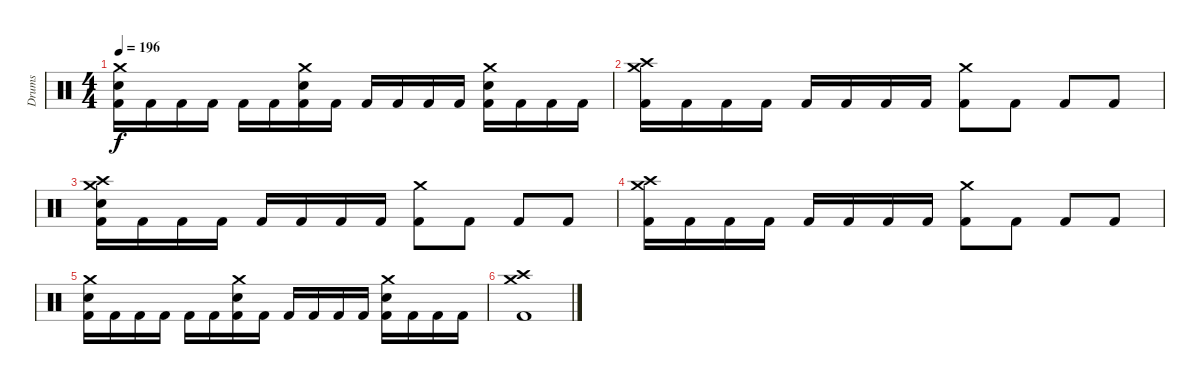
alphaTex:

\track ("Drums" "Drums") {instrument percussion}
\staff {score}
\articulation defaults
\ts (4 4)
\tempo 196
\clef neutral
\ks c
("Crash medium (hit)" "Snare (hit) 2" "Kick (hit) 2").16{dy f} "Kick (hit) 2".16 "Kick (hit) 2".16 "Kick (hit) 2".16 "Kick (hit) 2".16 "Kick (hit) 2".16 ("Crash medium (hit)" "Snare (hit) 2" "Kick (hit) 2").16 "Kick (hit) 2".16 "Kick (hit) 2".16 "Kick (hit) 2".16 "Kick (hit) 2".16 "Kick (hit) 2".16 ("Crash medium (hit)" "Snare (hit) 2" "Kick (hit) 2").16 "Kick (hit) 2".16 "Kick (hit) 2".16 "Kick (hit) 2".16 |
("Crash high (hit)" "Crash medium (hit)" "Kick (hit) 2").16 "Kick (hit) 2".16 "Kick (hit) 2".16 "Kick (hit) 2".16 "Kick (hit) 2".16 "Kick (hit) 2".16 "Kick (hit) 2".16 "Kick (hit) 2".16 ("Crash medium (hit)" "Kick (hit) 2").8 "Kick (hit) 2".8 "Kick (hit) 2".8 "Kick (hit) 2".8 |
("Crash high (hit)" "Crash medium (hit)" "Snare (hit) 2" "Kick (hit) 2").16 "Kick (hit) 2".16 "Kick (hit) 2".16 "Kick (hit) 2".16 "Kick (hit) 2".16 "Kick (hit) 2".16 "Kick (hit) 2".16 "Kick (hit) 2".16 ("Crash medium (hit)" "Kick (hit) 2").8 "Kick (hit) 2".8 "Kick (hit) 2".8 "Kick (hit) 2".8 |
("Crash high (hit)" "Crash medium (hit)" "Kick (hit) 2").16 "Kick (hit) 2".16 "Kick (hit) 2".16 "Kick (hit) 2".16 "Kick (hit) 2".16 "Kick (hit) 2".16 "Kick (hit) 2".16 "Kick (hit) 2".16 ("Crash medium (hit)" "Kick (hit) 2").8 "Kick (hit) 2".8 "Kick (hit) 2".8 "Kick (hit) 2".8 |
("Crash medium (hit)" "Snare (hit) 2" "Kick (hit) 2").16 "Kick (hit) 2".16 "Kick (hit) 2".16 "Kick (hit) 2".16 "Kick (hit) 2".16 "Kick (hit) 2".16 ("Crash medium (hit)" "Snare (hit) 2" "Kick (hit) 2").16 "Kick (hit) 2".16 "Kick (hit) 2".16 "Kick (hit) 2".16 "Kick (hit) 2".16 "Kick (hit) 2".16 ("Crash medium (hit)" "Snare (hit) 2" "Kick (hit) 2").16 "Kick (hit) 2".16 "Kick (hit) 2".16 "Kick (hit) 2".16 |
("Crash high (hit)" "Crash medium (hit)" "Kick (hit) 2").1
